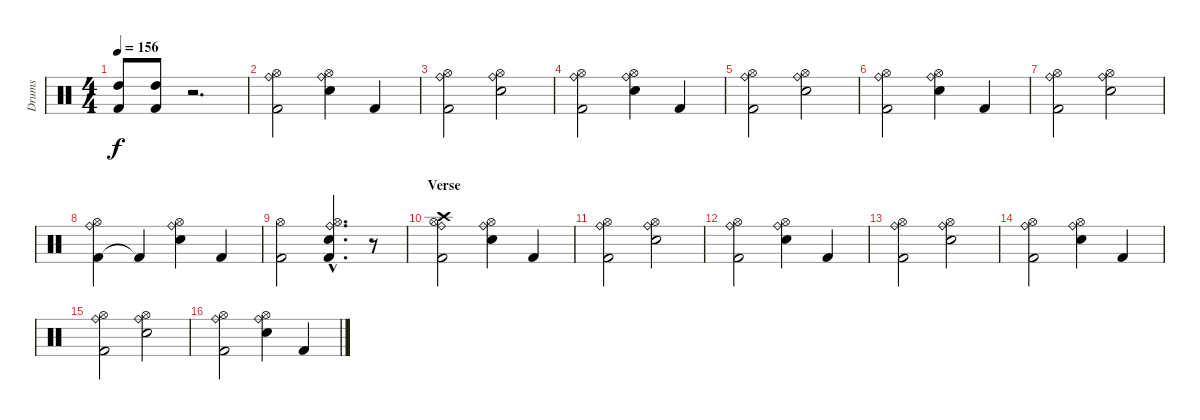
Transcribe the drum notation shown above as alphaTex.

\track ("Drums" "Drums") {instrument percussion}
\staff {score}
\articulation defaults
\ts (4 4)
\tempo 156
\clef neutral
\ks c
("Kick (hit) 2" "High Tom (hit)").8{dy f} ("Kick (hit) 2" "High Tom (hit)").8 r.2{d} |
("Kick (hit) 2" "Ride (bell)" "Hi-Hat (open)").2 ("Electric Snare (hit)" "Ride (bell)" "Hi-Hat (open)").4 "Kick (hit) 2".4 |
("Kick (hit) 2" "Ride (bell)" "Hi-Hat (open)").2 ("Electric Snare (hit)" "Ride (bell)" "Hi-Hat (open)").2 |
("Kick (hit) 2" "Ride (bell)" "Hi-Hat (open)").2 ("Electric Snare (hit)" "Ride (bell)" "Hi-Hat (open)").4 "Kick (hit) 2".4 |
("Kick (hit) 2" "Ride (bell)" "Hi-Hat (open)").2 ("Electric Snare (hit)" "Ride (bell)" "Hi-Hat (open)").2 |
("Kick (hit) 2" "Ride (bell)" "Hi-Hat (open)").2 ("Electric Snare (hit)" "Ride (bell)" "Hi-Hat (open)").4 "Kick (hit) 2".4 |
("Kick (hit) 2" "Ride (bell)" "Hi-Hat (open)").2 ("Electric Snare (hit)" "Ride (bell)" "Hi-Hat (open)").2 |
("Kick (hit) 2" "Hi-Hat (open)" "Ride (bell)").4 "Kick (hit) 2"{t}.4 ("Electric Snare (hit)" "Hi-Hat (open)" "Ride (bell)").4 "Kick (hit) 2".4 |
("Kick (hit) 2" "Hi-Hat (open)").2 ("Kick (hit) 2"{hac} "Electric Snare (hit)"{hac} "Hi-Hat (open)"{hac} "Ride (bell)"{hac}).4{d} r.8 |
\section ("" "Verse")
("Kick (hit) 2" "Crash high (hit)" "Ride (bell)" "Hi-Hat (open)").2 ("Electric Snare (hit)" "Ride (bell)" "Hi-Hat (open)").4 "Kick (hit) 2".4 |
("Kick (hit) 2" "Ride (bell)" "Hi-Hat (open)").2 ("Electric Snare (hit)" "Ride (bell)" "Hi-Hat (open)").2 |
("Kick (hit) 2" "Ride (bell)" "Hi-Hat (open)").2 ("Electric Snare (hit)" "Ride (bell)" "Hi-Hat (open)").4 "Kick (hit) 2".4 |
("Kick (hit) 2" "Ride (bell)" "Hi-Hat (open)").2 ("Electric Snare (hit)" "Ride (bell)" "Hi-Hat (open)").2 |
("Kick (hit) 2" "Ride (bell)" "Hi-Hat (open)").2 ("Electric Snare (hit)" "Ride (bell)" "Hi-Hat (open)").4 "Kick (hit) 2".4 |
("Kick (hit) 2" "Ride (bell)" "Hi-Hat (open)").2 ("Electric Snare (hit)" "Ride (bell)" "Hi-Hat (open)").2 |
("Kick (hit) 2" "Ride (bell)" "Hi-Hat (open)").2 ("Electric Snare (hit)" "Ride (bell)" "Hi-Hat (open)").4 "Kick (hit) 2".4
